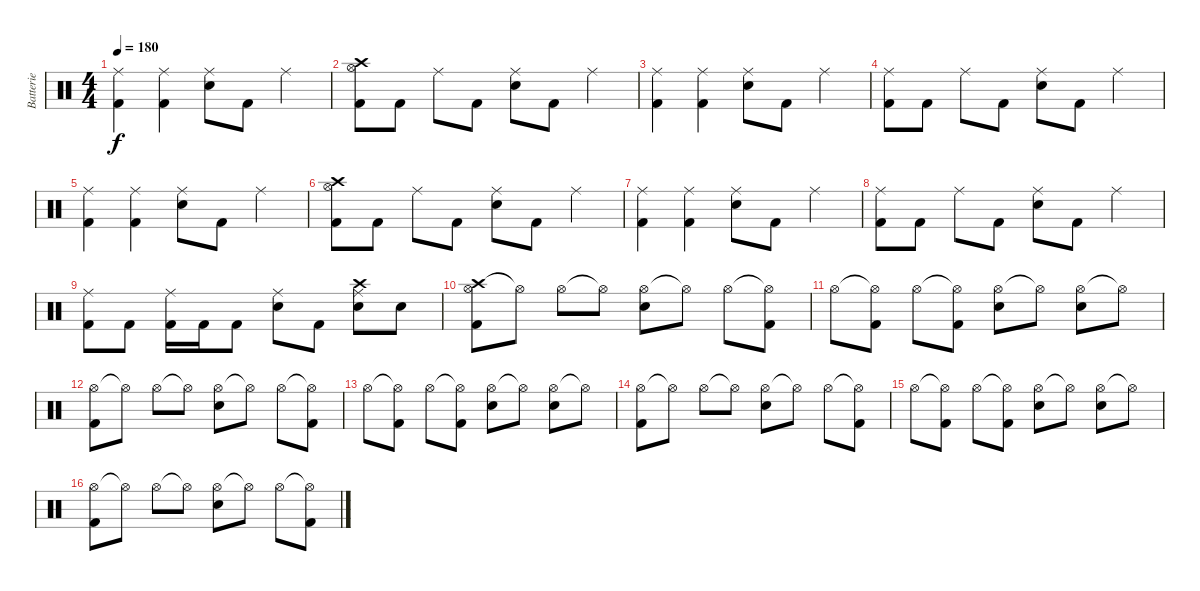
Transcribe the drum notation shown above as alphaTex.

\track ("Batterie" "Batterie") {instrument percussion}
\staff {score}
\articulation defaults
\ts (4 4)
\tempo 180
\clef neutral
\ks c
("Ride (middle)" "Kick (hit) 2").4{dy f} ("Ride (middle)" "Kick (hit) 2").4 ("Ride (middle)" "Electric Snare (hit)").8 "Kick (hit) 2".8 "Ride (middle)".4 |
("Crash high (hit)" "Hi-Hat (open)" "Kick (hit) 2").8 "Kick (hit) 2".8 "Ride (middle)".8 "Kick (hit) 2".8 ("Ride (middle)" "Electric Snare (hit)").8 "Kick (hit) 2".8 "Ride (middle)".4 |
("Ride (middle)" "Kick (hit) 2").4 ("Ride (middle)" "Kick (hit) 2").4 ("Ride (middle)" "Electric Snare (hit)").8 "Kick (hit) 2".8 "Ride (middle)".4 |
("Ride (middle)" "Kick (hit) 2").8 "Kick (hit) 2".8 "Ride (middle)".8 "Kick (hit) 2".8 ("Ride (middle)" "Electric Snare (hit)").8 "Kick (hit) 2".8 "Ride (middle)".4 |
("Ride (middle)" "Kick (hit) 2").4 ("Ride (middle)" "Kick (hit) 2").4 ("Ride (middle)" "Electric Snare (hit)").8 "Kick (hit) 2".8 "Ride (middle)".4 |
("Crash high (hit)" "Hi-Hat (open)" "Kick (hit) 2").8 "Kick (hit) 2".8 "Ride (middle)".8 "Kick (hit) 2".8 ("Ride (middle)" "Electric Snare (hit)").8 "Kick (hit) 2".8 "Ride (middle)".4 |
("Ride (middle)" "Kick (hit) 2").4 ("Ride (middle)" "Kick (hit) 2").4 ("Ride (middle)" "Electric Snare (hit)").8 "Kick (hit) 2".8 "Ride (middle)".4 |
("Ride (middle)" "Kick (hit) 2").8 "Kick (hit) 2".8 "Ride (middle)".8 "Kick (hit) 2".8 ("Ride (middle)" "Electric Snare (hit)").8 "Kick (hit) 2".8 "Ride (middle)".4 |
("Ride (middle)" "Kick (hit) 2").8 "Kick (hit) 2".8 ("Ride (middle)" "Kick (hit) 2").16 "Kick (hit) 2".16 "Kick (hit) 2".8 ("Ride (middle)" "Electric Snare (hit)").8 "Kick (hit) 2".8 ("Crash high (hit)" "Ride (middle)" "Electric Snare (hit)").8 "Electric Snare (hit)".8 |
("Crash high (hit)" "Hi-Hat (open)" "Kick (hit) 2").8 "Hi-Hat (open)"{t}.8 "Hi-Hat (open)".8 "Hi-Hat (open)"{t}.8 ("Hi-Hat (open)" "Electric Snare (hit)").8 "Hi-Hat (open)"{t}.8 "Hi-Hat (open)".8 ("Hi-Hat (open)"{t} "Kick (hit) 2").8 |
"Hi-Hat (open)".8 ("Hi-Hat (open)"{t} "Kick (hit) 2").8 "Hi-Hat (open)".8 ("Hi-Hat (open)"{t} "Kick (hit) 2").8 ("Hi-Hat (open)" "Electric Snare (hit)").8 "Hi-Hat (open)"{t}.8 ("Hi-Hat (open)" "Electric Snare (hit)").8 "Hi-Hat (open)"{t}.8 |
("Hi-Hat (open)" "Kick (hit) 2").8 "Hi-Hat (open)"{t}.8 "Hi-Hat (open)".8 "Hi-Hat (open)"{t}.8 ("Hi-Hat (open)" "Electric Snare (hit)").8 "Hi-Hat (open)"{t}.8 "Hi-Hat (open)".8 ("Hi-Hat (open)"{t} "Kick (hit) 2").8 |
"Hi-Hat (open)".8 ("Hi-Hat (open)"{t} "Kick (hit) 2").8 "Hi-Hat (open)".8 ("Hi-Hat (open)"{t} "Kick (hit) 2").8 ("Hi-Hat (open)" "Electric Snare (hit)").8 "Hi-Hat (open)"{t}.8 ("Hi-Hat (open)" "Electric Snare (hit)").8 "Hi-Hat (open)"{t}.8 |
("Hi-Hat (open)" "Kick (hit) 2").8 "Hi-Hat (open)"{t}.8 "Hi-Hat (open)".8 "Hi-Hat (open)"{t}.8 ("Hi-Hat (open)" "Electric Snare (hit)").8 "Hi-Hat (open)"{t}.8 "Hi-Hat (open)".8 ("Hi-Hat (open)"{t} "Kick (hit) 2").8 |
"Hi-Hat (open)".8 ("Hi-Hat (open)"{t} "Kick (hit) 2").8 "Hi-Hat (open)".8 ("Hi-Hat (open)"{t} "Kick (hit) 2").8 ("Hi-Hat (open)" "Electric Snare (hit)").8 "Hi-Hat (open)"{t}.8 ("Hi-Hat (open)" "Electric Snare (hit)").8 "Hi-Hat (open)"{t}.8 |
("Hi-Hat (open)" "Kick (hit) 2").8 "Hi-Hat (open)"{t}.8 "Hi-Hat (open)".8 "Hi-Hat (open)"{t}.8 ("Hi-Hat (open)" "Electric Snare (hit)").8 "Hi-Hat (open)"{t}.8 "Hi-Hat (open)".8 ("Hi-Hat (open)"{t} "Kick (hit) 2").8
